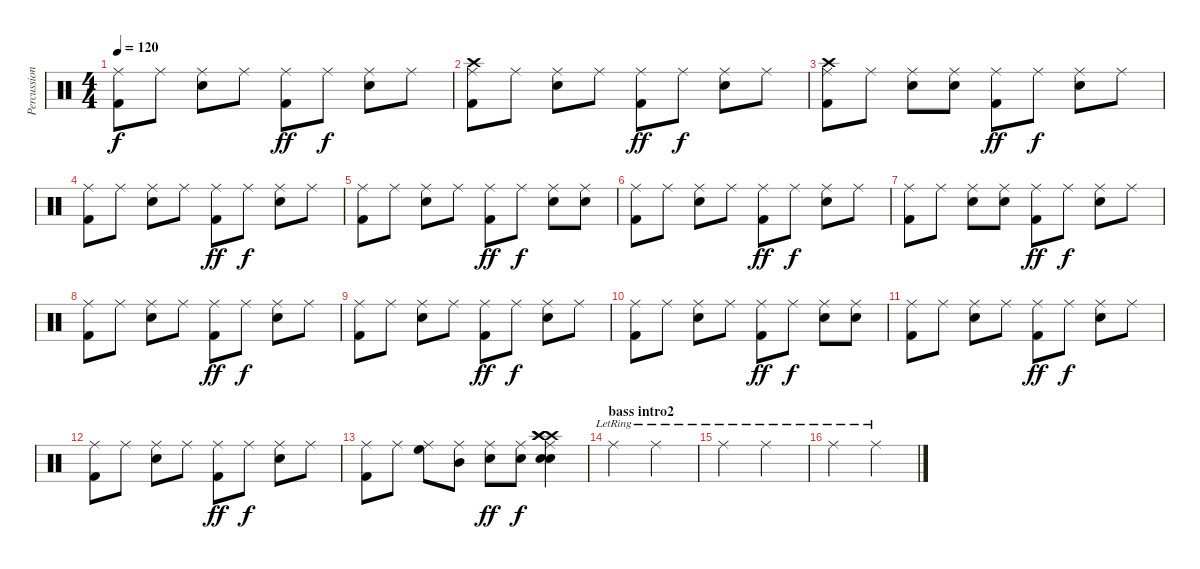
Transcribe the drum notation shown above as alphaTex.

\track ("Percussioni" "Percussion") {instrument percussion}
\staff {score}
\articulation defaults
\ts (4 4)
\tempo 120
\clef neutral
\ks c
("Kick (hit) 2" "Ride (middle)").8{dy f} "Ride (middle)".8 ("Electric Snare (hit)" "Ride (middle)").8 "Ride (middle)".8 ("Kick (hit) 2" "Ride (middle)").8{dy ff} "Ride (middle)".8{dy f} ("Electric Snare (hit)" "Ride (middle)").8 "Ride (middle)".8 |
("Crash high (hit)" "Kick (hit) 2" "Ride (middle)").8 "Ride (middle)".8 ("Electric Snare (hit)" "Ride (middle)").8 "Ride (middle)".8 ("Kick (hit) 2" "Ride (middle)").8{dy ff} "Ride (middle)".8{dy f} ("Electric Snare (hit)" "Ride (middle)").8 "Ride (middle)".8 |
("Crash high (hit)" "Kick (hit) 2" "Ride (middle)").8 "Ride (middle)".8 ("Electric Snare (hit)" "Ride (middle)").8 ("Electric Snare (hit)" "Ride (middle)").8 ("Kick (hit) 2" "Ride (middle)").8{dy ff} "Ride (middle)".8{dy f} ("Electric Snare (hit)" "Ride (middle)").8 "Ride (middle)".8 |
("Kick (hit) 2" "Ride (middle)").8 "Ride (middle)".8 ("Electric Snare (hit)" "Ride (middle)").8 "Ride (middle)".8 ("Kick (hit) 2" "Ride (middle)").8{dy ff} "Ride (middle)".8{dy f} ("Electric Snare (hit)" "Ride (middle)").8 "Ride (middle)".8 |
("Kick (hit) 2" "Ride (middle)").8 "Ride (middle)".8 ("Electric Snare (hit)" "Ride (middle)").8 "Ride (middle)".8 ("Kick (hit) 2" "Ride (middle)").8{dy ff} "Ride (middle)".8{dy f} ("Electric Snare (hit)" "Ride (middle)").8 ("Electric Snare (hit)" "Ride (middle)").8 |
("Kick (hit) 2" "Ride (middle)").8 "Ride (middle)".8 ("Electric Snare (hit)" "Ride (middle)").8 "Ride (middle)".8 ("Kick (hit) 2" "Ride (middle)").8{dy ff} "Ride (middle)".8{dy f} ("Electric Snare (hit)" "Ride (middle)").8 "Ride (middle)".8 |
("Kick (hit) 2" "Ride (middle)").8 "Ride (middle)".8 ("Electric Snare (hit)" "Ride (middle)").8 ("Electric Snare (hit)" "Ride (middle)").8 ("Kick (hit) 2" "Ride (middle)").8{dy ff} "Ride (middle)".8{dy f} ("Electric Snare (hit)" "Ride (middle)").8 "Ride (middle)".8 |
("Kick (hit) 2" "Ride (middle)").8 "Ride (middle)".8 ("Electric Snare (hit)" "Ride (middle)").8 "Ride (middle)".8 ("Kick (hit) 2" "Ride (middle)").8{dy ff} "Ride (middle)".8{dy f} ("Electric Snare (hit)" "Ride (middle)").8 "Ride (middle)".8 |
("Kick (hit) 2" "Ride (middle)").8 "Ride (middle)".8 ("Electric Snare (hit)" "Ride (middle)").8 "Ride (middle)".8 ("Kick (hit) 2" "Ride (middle)").8{dy ff} "Ride (middle)".8{dy f} ("Electric Snare (hit)" "Ride (middle)").8 "Ride (middle)".8 |
("Kick (hit) 2" "Ride (middle)").8 "Ride (middle)".8 ("Electric Snare (hit)" "Ride (middle)").8 "Ride (middle)".8 ("Kick (hit) 2" "Ride (middle)").8{dy ff} "Ride (middle)".8{dy f} ("Electric Snare (hit)" "Ride (middle)").8 ("Electric Snare (hit)" "Ride (middle)").8 |
("Kick (hit) 2" "Ride (middle)").8 "Ride (middle)".8 ("Electric Snare (hit)" "Ride (middle)").8 "Ride (middle)".8 ("Kick (hit) 2" "Ride (middle)").8{dy ff} "Ride (middle)".8{dy f} ("Electric Snare (hit)" "Ride (middle)").8 "Ride (middle)".8 |
("Kick (hit) 2" "Ride (middle)").8 "Ride (middle)".8 ("Electric Snare (hit)" "Ride (middle)").8 "Ride (middle)".8 ("Kick (hit) 2" "Ride (middle)").8{dy ff} "Ride (middle)".8{dy f} ("Electric Snare (hit)" "Ride (middle)").8 "Ride (middle)".8 |
("Kick (hit) 2" "Ride (middle)").8 "Ride (middle)".8 ("High Floor Tom (hit)" "Ride (middle)").8 ("Mid Tom (hit)" "Ride (middle)").8 ("Electric Snare (hit)" "Ride (middle)").8{dy ff} ("Electric Snare (hit)" "Ride (middle)").8{dy f} ("Crash high (hit)" "Crash high (hit)" "Crash high (hit)" "Electric Snare (hit)" "Ride (middle)" "Electric Snare (hit)").4 |
\section ("" "bass intro2")
"Ride (middle)"{lr}.2 "Ride (middle)"{lr}.2 |
"Ride (middle)"{lr}.2 "Ride (middle)"{lr}.2 |
"Ride (middle)"{lr}.2 "Ride (middle)"{lr}.2
